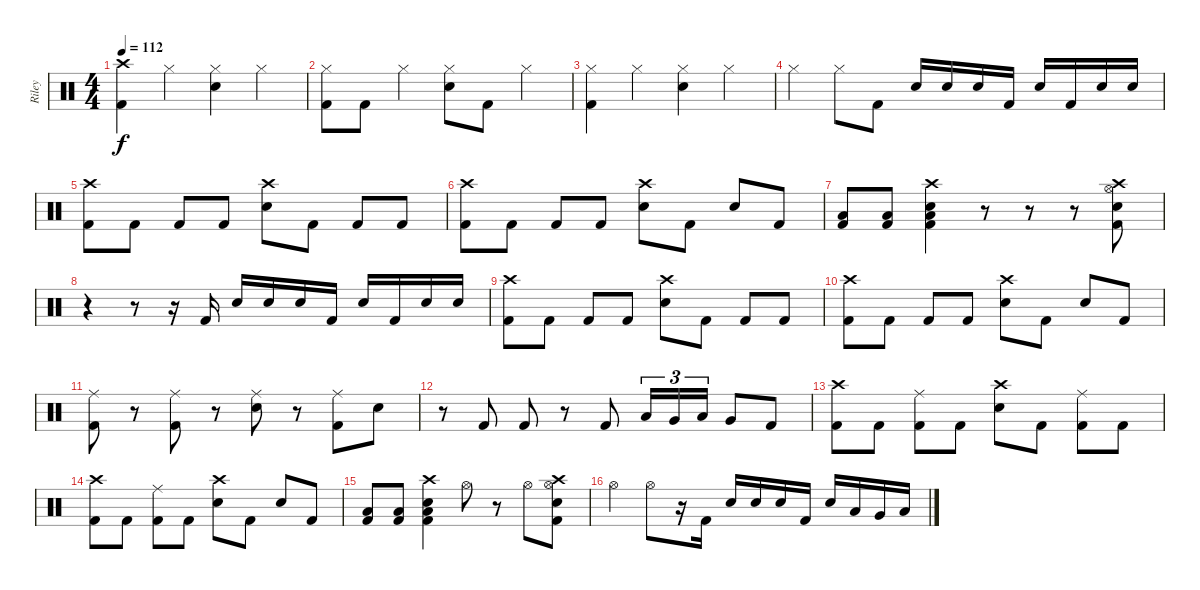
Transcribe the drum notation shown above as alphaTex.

\track ("Riley" "Riley") {instrument percussion}
\staff {score}
\articulation defaults
\ts (4 4)
\tempo 112
\clef neutral
\ks c
("Crash high (hit)" "Kick (hit) 2").4{dy f} "Hi-Hat (closed)".4 ("Hi-Hat (closed)" "Snare (hit) 2").4 "Hi-Hat (closed)".4 |
("Hi-Hat (closed)" "Kick (hit) 2").8 "Kick (hit) 2".8 "Hi-Hat (closed)".4 ("Hi-Hat (closed)" "Snare (hit) 2").8 "Kick (hit) 2".8 "Hi-Hat (closed)".4 |
("Hi-Hat (closed)" "Kick (hit) 2").4 "Hi-Hat (closed)".4 ("Hi-Hat (closed)" "Snare (hit) 2").4 "Hi-Hat (closed)".4 |
"Hi-Hat (closed)".4 "Hi-Hat (closed)".8 "Kick (hit) 2".8 "Snare (hit) 2".16 "Snare (hit) 2".16 "Snare (hit) 2".16 "Kick (hit) 2".16 "Snare (hit) 2".16 "Kick (hit) 2".16 "Snare (hit) 2".16 "Snare (hit) 2".16 |
("Crash high (hit)" "Kick (hit) 2").8 "Kick (hit) 2".8 "Kick (hit) 2".8 "Kick (hit) 2".8 ("Crash high (hit)" "Snare (hit) 2").8 "Kick (hit) 2".8 "Kick (hit) 2".8 "Kick (hit) 2".8 |
("Crash high (hit)" "Kick (hit) 2").8 "Kick (hit) 2".8 "Kick (hit) 2".8 "Kick (hit) 2".8 ("Crash high (hit)" "Snare (hit) 2").8 "Kick (hit) 2".8 "Snare (hit) 2".8 "Kick (hit) 2".8 |
("Low Floor Tom (hit)" "Kick (hit) 2").8 ("Low Floor Tom (hit)" "Kick (hit) 2").8 ("Crash high (hit)" "Snare (hit) 2" "Low Floor Tom (hit)" "Kick (hit) 2").4 r.8 r.8 r.8 ("Hi-Hat (open)" "Crash high (hit)" "Snare (hit) 2" "Kick (hit) 2").8 |
r.4 r.8 r.16 "Kick (hit) 2".16 "Snare (hit) 2".16 "Snare (hit) 2".16 "Snare (hit) 2".16 "Kick (hit) 2".16 "Snare (hit) 2".16 "Kick (hit) 2".16 "Snare (hit) 2".16 "Snare (hit) 2".16 |
("Crash high (hit)" "Kick (hit) 2").8 "Kick (hit) 2".8 "Kick (hit) 2".8 "Kick (hit) 2".8 ("Crash high (hit)" "Snare (hit) 2").8 "Kick (hit) 2".8 "Kick (hit) 2".8 "Kick (hit) 2".8 |
("Crash high (hit)" "Kick (hit) 2").8 "Kick (hit) 2".8 "Kick (hit) 2".8 "Kick (hit) 2".8 ("Crash high (hit)" "Snare (hit) 2").8 "Kick (hit) 2".8 "Snare (hit) 2".8 "Kick (hit) 2".8 |
("Ride (middle)" "Kick (hit) 2").8 r.8 ("Ride (middle)" "Kick (hit) 2").8 r.8 ("Ride (middle)" "Snare (hit) 2").8 r.8 ("Ride (middle)" "Kick (hit) 2").8 "Snare (hit) 2".8 |
r.8 "Kick (hit) 2".8 "Kick (hit) 2".8 r.8 "Kick (hit) 2".8 "Low Tom (hit)".16{tu (3 2)} "Very Low Tom (hit)".16{tu (3 2)} "Low Floor Tom (hit)".16{tu (3 2)} "Very Low Tom (hit)".8 "Kick (hit) 2".8 |
("Crash high (hit)" "Kick (hit) 2").8 "Kick (hit) 2".8 ("Ride (middle)" "Kick (hit) 2").8 "Kick (hit) 2".8 ("Crash high (hit)" "Snare (hit) 2").8 "Kick (hit) 2".8 ("Ride (middle)" "Kick (hit) 2").8 "Kick (hit) 2".8 |
("Crash high (hit)" "Kick (hit) 2").8 "Kick (hit) 2".8 ("Ride (middle)" "Kick (hit) 2").8 "Kick (hit) 2".8 ("Crash high (hit)" "Snare (hit) 2").8 "Kick (hit) 2".8 "Snare (hit) 2".8 "Kick (hit) 2".8 |
("Low Floor Tom (hit)" "Kick (hit) 2").8 ("Low Floor Tom (hit)" "Kick (hit) 2").8 ("Crash high (hit)" "Snare (hit) 2" "Low Floor Tom (hit)" "Kick (hit) 2").4 "Hi-Hat (open)".8 r.8 "Hi-Hat (open)".8 ("Hi-Hat (open)" "Crash high (hit)" "Snare (hit) 2" "Kick (hit) 2").8 |
"Hi-Hat (open)".4 "Hi-Hat (open)".8 r.16 "Kick (hit) 2".16 "Snare (hit) 2".16 "Snare (hit) 2".16 "Snare (hit) 2".16 "Kick (hit) 2".16 "Snare (hit) 2".16 "Low Tom (hit)".16 "Very Low Tom (hit)".16 "Low Floor Tom (hit)".16
